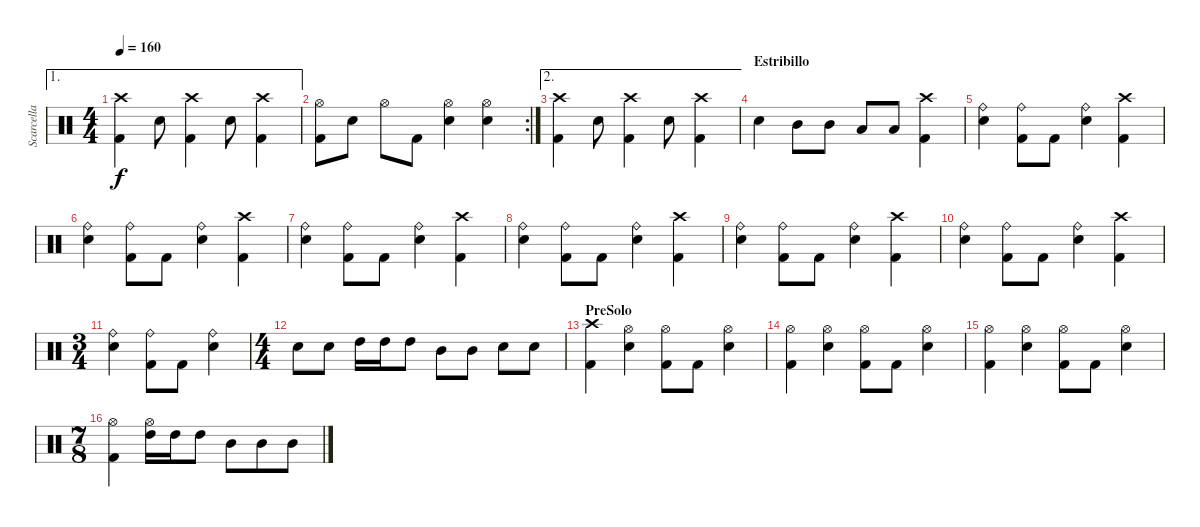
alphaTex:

\track ("Scarcella" "Scarcella") {instrument percussion}
\staff {score}
\articulation defaults
\ae 1
\ts (4 4)
\tempo 160
\clef neutral
\ks c
("Crash high (hit)" "Kick (hit) 2").4{dy f} "Snare (hit) 2".8 ("Crash high (hit)" "Kick (hit) 2").4 "Snare (hit) 2".8 ("Crash high (hit)" "Kick (hit) 2").4 |
\rc 2
("Hi-Hat (open)" "Kick (hit) 2").8 "Snare (hit) 2".8 "Hi-Hat (open)".8 "Kick (hit) 2".8 ("Hi-Hat (open)" "Snare (hit) 2").4 ("Hi-Hat (open)" "Snare (hit) 2").4 |
\ae 2
("Crash high (hit)" "Kick (hit) 2").4 "Snare (hit) 2".8 ("Crash high (hit)" "Kick (hit) 2").4 "Snare (hit) 2".8 ("Crash high (hit)" "Kick (hit) 2").4 |
\section ("" "Estribillo")
"Snare (hit) 2".4 "Mid Tom (hit)".8 "Mid Tom (hit)".8 "Low Tom (hit)".8 "Low Tom (hit)".8 ("Crash high (hit)" "Kick (hit) 2").4 |
("Ride (bell)" "Snare (hit) 2").4 ("Ride (bell)" "Kick (hit) 2").8 "Kick (hit) 2".8 ("Ride (bell)" "Snare (hit) 2").4 ("Crash high (hit)" "Kick (hit) 2").4 |
("Ride (bell)" "Snare (hit) 2").4 ("Ride (bell)" "Kick (hit) 2").8 "Kick (hit) 2".8 ("Ride (bell)" "Snare (hit) 2").4 ("Crash high (hit)" "Kick (hit) 2").4 |
("Ride (bell)" "Snare (hit) 2").4 ("Ride (bell)" "Kick (hit) 2").8 "Kick (hit) 2".8 ("Ride (bell)" "Snare (hit) 2").4 ("Crash high (hit)" "Kick (hit) 2").4 |
("Ride (bell)" "Snare (hit) 2").4 ("Ride (bell)" "Kick (hit) 2").8 "Kick (hit) 2".8 ("Ride (bell)" "Snare (hit) 2").4 ("Crash high (hit)" "Kick (hit) 2").4 |
("Ride (bell)" "Snare (hit) 2").4 ("Ride (bell)" "Kick (hit) 2").8 "Kick (hit) 2".8 ("Ride (bell)" "Snare (hit) 2").4 ("Crash high (hit)" "Kick (hit) 2").4 |
("Ride (bell)" "Snare (hit) 2").4 ("Ride (bell)" "Kick (hit) 2").8 "Kick (hit) 2".8 ("Ride (bell)" "Snare (hit) 2").4 ("Crash high (hit)" "Kick (hit) 2").4 |
\ts (3 4)
("Ride (bell)" "Snare (hit) 2").4 ("Ride (bell)" "Kick (hit) 2").8 "Kick (hit) 2".8 ("Ride (bell)" "Snare (hit) 2").4 |
\ts (4 4)
"Snare (hit) 2".8 "Snare (hit) 2".8 "High Tom (hit)".16 "High Tom (hit)".16 "High Tom (hit)".8 "Mid Tom (hit)".8 "Mid Tom (hit)".8 "Snare (hit) 2".8 "Snare (hit) 2".8 |
\section ("" "PreSolo")
("Crash high (hit)" "Kick (hit) 2").4 ("Hi-Hat (open)" "Snare (hit) 2").4 ("Hi-Hat (open)" "Kick (hit) 2").8 "Kick (hit) 2".8 ("Hi-Hat (open)" "Snare (hit) 2").4 |
("Hi-Hat (open)" "Kick (hit) 2").4 ("Hi-Hat (open)" "Snare (hit) 2").4 ("Hi-Hat (open)" "Kick (hit) 2").8 "Kick (hit) 2".8 ("Hi-Hat (open)" "Snare (hit) 2").4 |
("Hi-Hat (open)" "Kick (hit) 2").4 ("Hi-Hat (open)" "Snare (hit) 2").4 ("Hi-Hat (open)" "Kick (hit) 2").8 "Kick (hit) 2".8 ("Hi-Hat (open)" "Snare (hit) 2").4 |
\ts (7 8)
("Hi-Hat (open)" "Kick (hit) 2").4 ("Hi-Hat (open)" "High Tom (hit)").16 "High Tom (hit)".16 "High Tom (hit)".8 "Mid Tom (hit)".8 "Mid Tom (hit)".8 "Mid Tom (hit)".8
